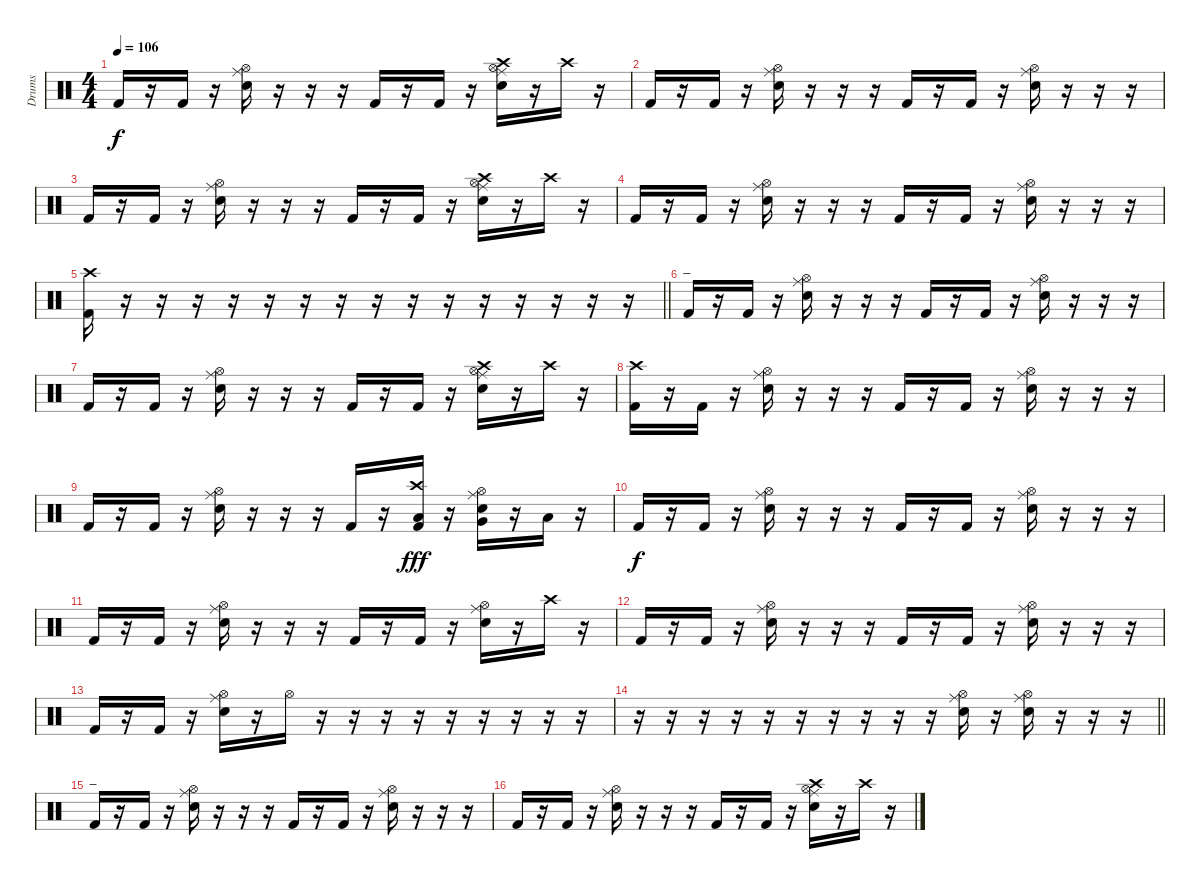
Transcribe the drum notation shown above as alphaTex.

\track ("Drums" "Drums") {instrument percussion}
\staff {score}
\articulation defaults
\ts (4 4)
\tempo 106
\clef neutral
\ks c "Kick (hit) 2".16{dy f}
r.16 "Kick (hit) 2".16 r.16 ("Ride (middle)" "Hi-Hat (open)" "Snare (hit) 2").16 r.16 r.16 r.16 "Kick (hit) 2".16 r.16 "Kick (hit) 2".16 r.16 ("Ride (middle)" "Hi-Hat (open)" "Crash high (hit)" "Snare (hit) 2").16 r.16 "Crash high (hit)".16 r.16 |
"Kick (hit) 2".16 r.16 "Kick (hit) 2".16 r.16 ("Ride (middle)" "Hi-Hat (open)" "Snare (hit) 2").16 r.16 r.16 r.16 "Kick (hit) 2".16 r.16 "Kick (hit) 2".16 r.16 ("Ride (middle)" "Hi-Hat (open)" "Snare (hit) 2").16 r.16 r.16 r.16 |
"Kick (hit) 2".16 r.16 "Kick (hit) 2".16 r.16 ("Ride (middle)" "Hi-Hat (open)" "Snare (hit) 2").16 r.16 r.16 r.16 "Kick (hit) 2".16 r.16 "Kick (hit) 2".16 r.16 ("Ride (middle)" "Hi-Hat (open)" "Crash high (hit)" "Snare (hit) 2").16 r.16 "Crash high (hit)".16 r.16 |
"Kick (hit) 2".16 r.16 "Kick (hit) 2".16 r.16 ("Ride (middle)" "Hi-Hat (open)" "Snare (hit) 2").16 r.16 r.16 r.16 "Kick (hit) 2".16 r.16 "Kick (hit) 2".16 r.16 ("Ride (middle)" "Hi-Hat (open)" "Snare (hit) 2").16 r.16 r.16 r.16 |
\barLineRight lightlight
("Crash high (hit)" "Kick (hit) 2").16 r.16 r.16 r.16 r.16 r.16 r.16 r.16 r.16 r.16 r.16 r.16 r.16 r.16 r.16 r.16 |
\section ("" "_")
"Kick (hit) 2".16 r.16 "Kick (hit) 2".16 r.16 ("Ride (middle)" "Hi-Hat (open)" "Snare (hit) 2").16 r.16 r.16 r.16 "Kick (hit) 2".16 r.16 "Kick (hit) 2".16 r.16 ("Ride (middle)" "Hi-Hat (open)" "Snare (hit) 2").16 r.16 r.16 r.16 |
"Kick (hit) 2".16 r.16 "Kick (hit) 2".16 r.16 ("Ride (middle)" "Hi-Hat (open)" "Snare (hit) 2").16 r.16 r.16 r.16 "Kick (hit) 2".16 r.16 "Kick (hit) 2".16 r.16 ("Ride (middle)" "Hi-Hat (open)" "Crash high (hit)" "Snare (hit) 2").16 r.16 "Crash high (hit)".16 r.16 |
("Crash high (hit)" "Kick (hit) 2").16 r.16 "Kick (hit) 2".16 r.16 ("Ride (middle)" "Hi-Hat (open)" "Snare (hit) 2").16 r.16 r.16 r.16 "Kick (hit) 2".16 r.16 "Kick (hit) 2".16 r.16 ("Ride (middle)" "Hi-Hat (open)" "Snare (hit) 2").16 r.16 r.16 r.16 |
"Kick (hit) 2".16 r.16 "Kick (hit) 2".16 r.16 ("Ride (middle)" "Hi-Hat (open)" "Snare (hit) 2").16 r.16 r.16 r.16 "Kick (hit) 2".16 r.16 ("Crash high (hit)" "Low Tom (hit)" "Kick (hit) 2").16{dy fff} r.16 ("Ride (middle)" "Hi-Hat (open)" "Snare (hit) 2" "Very Low Tom (hit)").16 r.16 "Low Floor Tom (hit)".16 r.16 |
"Kick (hit) 2".16{dy f} r.16 "Kick (hit) 2".16 r.16 ("Ride (middle)" "Hi-Hat (open)" "Snare (hit) 2").16 r.16 r.16 r.16 "Kick (hit) 2".16 r.16 "Kick (hit) 2".16 r.16 ("Ride (middle)" "Hi-Hat (open)" "Snare (hit) 2").16 r.16 r.16 r.16 |
"Kick (hit) 2".16 r.16 "Kick (hit) 2".16 r.16 ("Ride (middle)" "Hi-Hat (open)" "Snare (hit) 2").16 r.16 r.16 r.16 "Kick (hit) 2".16 r.16 "Kick (hit) 2".16 r.16 ("Ride (middle)" "Hi-Hat (open)" "Snare (hit) 2").16 r.16 "Crash high (hit)".16 r.16 |
"Kick (hit) 2".16 r.16 "Kick (hit) 2".16 r.16 ("Ride (middle)" "Hi-Hat (open)" "Snare (hit) 2").16 r.16 r.16 r.16 "Kick (hit) 2".16 r.16 "Kick (hit) 2".16 r.16 ("Ride (middle)" "Hi-Hat (open)" "Snare (hit) 2").16 r.16 r.16 r.16 |
"Kick (hit) 2".16 r.16 "Kick (hit) 2".16 r.16 ("Ride (middle)" "Hi-Hat (open)" "Snare (hit) 2").16 r.16 "Hi-Hat (open)".16 r.16 r.16 r.16 r.16 r.16 r.16 r.16 r.16 r.16 |
\barLineRight lightlight
r.16 r.16 r.16 r.16 r.16 r.16 r.16 r.16 r.16 r.16 ("Ride (middle)" "Hi-Hat (open)" "Snare (hit) 2").16 r.16 ("Ride (middle)" "Hi-Hat (open)" "Snare (hit) 2").16 r.16 r.16 r.16 |
\section ("" "_")
"Kick (hit) 2".16 r.16 "Kick (hit) 2".16 r.16 ("Ride (middle)" "Hi-Hat (open)" "Snare (hit) 2").16 r.16 r.16 r.16 "Kick (hit) 2".16 r.16 "Kick (hit) 2".16 r.16 ("Ride (middle)" "Hi-Hat (open)" "Snare (hit) 2").16 r.16 r.16 r.16 |
"Kick (hit) 2".16 r.16 "Kick (hit) 2".16 r.16 ("Ride (middle)" "Hi-Hat (open)" "Snare (hit) 2").16 r.16 r.16 r.16 "Kick (hit) 2".16 r.16 "Kick (hit) 2".16 r.16 ("Ride (middle)" "Hi-Hat (open)" "Crash high (hit)" "Snare (hit) 2").16 r.16 "Crash high (hit)".16 r.16
